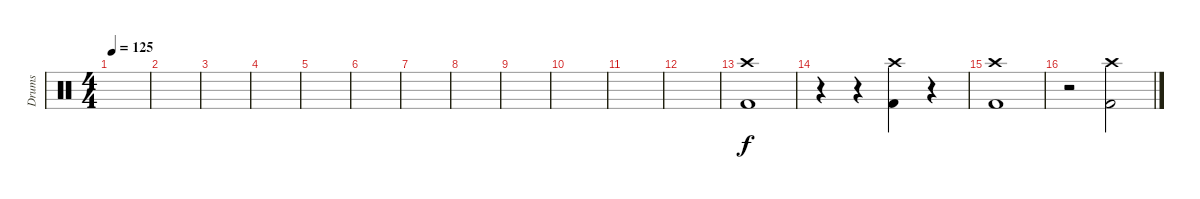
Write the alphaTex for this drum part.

\track ("Drums" "Drums") {instrument percussion}
\staff {score}
\articulation defaults
\ts (4 4)
\tempo 125
\clef neutral
\ks c
|
|
|
|
|
|
|
|
|
|
|
|
("Crash high (hit)" "Kick (hit) 2").1 |
r.4 r.4 ("Crash high (hit)" "Kick (hit) 2").4 r.4 |
("Crash high (hit)" "Kick (hit) 2").1 |
r.2 ("Crash high (hit)" "Kick (hit) 2").2
